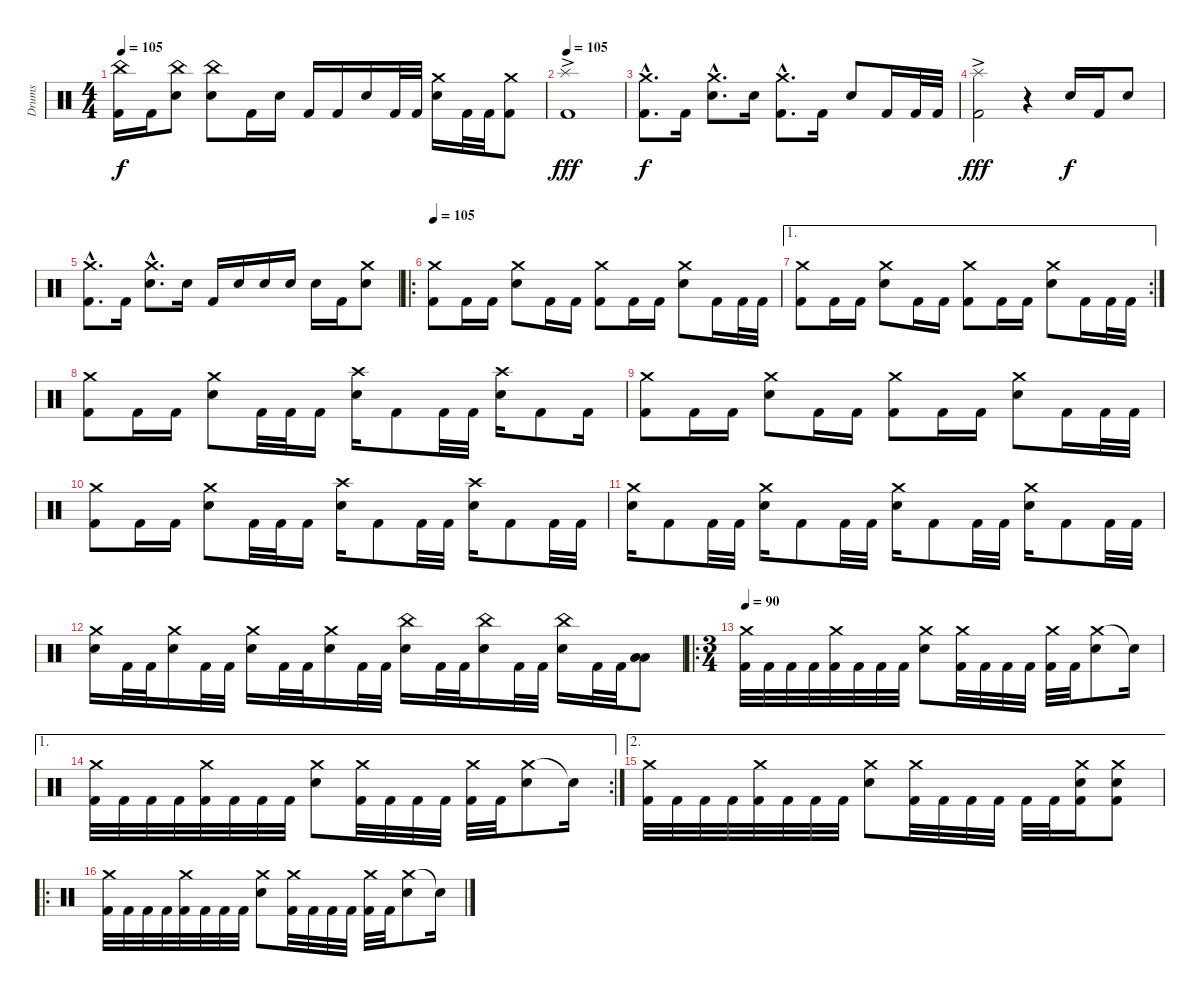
\track ("Drums" "Drums") {instrument percussion}
\staff {score}
\articulation defaults
\ts (4 4)
\tempo 105
\clef neutral
\ks c
("China (hit)" "Kick (hit) 2").16{dy f} "Kick (hit) 2".16 ("China (hit)" "Electric Snare (hit)").8 ("China (hit)" "Electric Snare (hit)").8 "Kick (hit) 2".16 "Electric Snare (hit)".16 "Kick (hit) 2".16 "Kick (hit) 2".16 "Electric Snare (hit)".16 "Kick (hit) 2".32 "Kick (hit) 2".32 ("Crash medium (hit)" "Electric Snare (hit)").16 "Kick (hit) 2".32 "Kick (hit) 2".32 ("Crash medium (hit)" "Kick (hit) 2").8 |
\tempo 105
("Splash (hit)"{ac} "Kick (hit) 2"{ac}).1{dy fff} |
("Crash medium (hit)"{hac} "Kick (hit) 2"{hac}).8{d dy f} "Kick (hit) 2".16 ("Crash medium (hit)"{hac} "Electric Snare (hit)"{hac}).8{d} "Electric Snare (hit)".16 ("Crash medium (hit)"{hac} "Kick (hit) 2"{hac}).8{d} "Kick (hit) 2".16 "Electric Snare (hit)".8 "Kick (hit) 2".16 "Kick (hit) 2".32 "Kick (hit) 2".32 |
("Splash (hit)"{ac} "Kick (hit) 2"{ac}).2{dy fff} r.4 "Electric Snare (hit)".16{dy f} "Kick (hit) 2".16 "Electric Snare (hit)".8 |
("Crash medium (hit)"{hac} "Kick (hit) 2"{hac}).8{d} "Kick (hit) 2".16 ("Crash medium (hit)"{hac} "Electric Snare (hit)"{hac}).8{d} "Electric Snare (hit)".16 "Kick (hit) 2".16 "Electric Snare (hit)".16 "Electric Snare (hit)".16 "Electric Snare (hit)".16 "Electric Snare (hit)".16 "Kick (hit) 2".16 ("Crash medium (hit)" "Electric Snare (hit)").8 |
\ro
\tempo 105
("Crash medium (hit)" "Kick (hit) 2").8 "Kick (hit) 2".16 "Kick (hit) 2".16 ("Crash medium (hit)" "Electric Snare (hit)").8 "Kick (hit) 2".16 "Kick (hit) 2".16 ("Crash medium (hit)" "Kick (hit) 2").8 "Kick (hit) 2".16 "Kick (hit) 2".16 ("Crash medium (hit)" "Electric Snare (hit)").8 "Kick (hit) 2".16 "Kick (hit) 2".32 "Kick (hit) 2".32 |
\ae 1
\rc 2
("Crash medium (hit)" "Kick (hit) 2").8 "Kick (hit) 2".16 "Kick (hit) 2".16 ("Crash medium (hit)" "Electric Snare (hit)").8 "Kick (hit) 2".16 "Kick (hit) 2".16 ("Crash medium (hit)" "Kick (hit) 2").8 "Kick (hit) 2".16 "Kick (hit) 2".16 ("Crash medium (hit)" "Electric Snare (hit)").8 "Kick (hit) 2".16 "Kick (hit) 2".32 "Kick (hit) 2".32 |
("Crash medium (hit)" "Kick (hit) 2").8 "Kick (hit) 2".16 "Kick (hit) 2".16 ("Crash medium (hit)" "Electric Snare (hit)").8 "Kick (hit) 2".32 "Kick (hit) 2".32 "Kick (hit) 2".16 ("Crash high (hit)" "Electric Snare (hit)").16 "Kick (hit) 2".8 "Kick (hit) 2".32 "Kick (hit) 2".32 ("Crash high (hit)" "Electric Snare (hit)").16 "Kick (hit) 2".8 "Kick (hit) 2".16 |
("Crash medium (hit)" "Kick (hit) 2").8 "Kick (hit) 2".16 "Kick (hit) 2".16 ("Crash medium (hit)" "Electric Snare (hit)").8 "Kick (hit) 2".16 "Kick (hit) 2".16 ("Crash medium (hit)" "Kick (hit) 2").8 "Kick (hit) 2".16 "Kick (hit) 2".16 ("Crash medium (hit)" "Electric Snare (hit)").8 "Kick (hit) 2".16 "Kick (hit) 2".32 "Kick (hit) 2".32 |
("Crash medium (hit)" "Kick (hit) 2").8 "Kick (hit) 2".16 "Kick (hit) 2".16 ("Crash medium (hit)" "Electric Snare (hit)").8 "Kick (hit) 2".32 "Kick (hit) 2".32 "Kick (hit) 2".16 ("Crash high (hit)" "Electric Snare (hit)").16 "Kick (hit) 2".8 "Kick (hit) 2".32 "Kick (hit) 2".32 ("Crash high (hit)" "Electric Snare (hit)").16 "Kick (hit) 2".8 "Kick (hit) 2".32 "Kick (hit) 2".32 |
("Crash medium (hit)" "Electric Snare (hit)").16 "Kick (hit) 2".8 "Kick (hit) 2".32 "Kick (hit) 2".32 ("Crash medium (hit)" "Electric Snare (hit)").16 "Kick (hit) 2".8 "Kick (hit) 2".32 "Kick (hit) 2".32 ("Crash medium (hit)" "Electric Snare (hit)").16 "Kick (hit) 2".8 "Kick (hit) 2".32 "Kick (hit) 2".32 ("Crash medium (hit)" "Electric Snare (hit)").16 "Kick (hit) 2".8 "Kick (hit) 2".32 "Kick (hit) 2".32 |
("Crash medium (hit)" "Electric Snare (hit)").16 "Kick (hit) 2".32 "Kick (hit) 2".32 ("Crash medium (hit)" "Electric Snare (hit)").16 "Kick (hit) 2".32 "Kick (hit) 2".32 ("Crash medium (hit)" "Electric Snare (hit)").16 "Kick (hit) 2".32 "Kick (hit) 2".32 ("Crash medium (hit)" "Electric Snare (hit)").16 "Kick (hit) 2".32 "Kick (hit) 2".32 ("China (hit)" "Electric Snare (hit)").16 "Kick (hit) 2".32 "Kick (hit) 2".32 ("China (hit)" "Electric Snare (hit)").16 "Kick (hit) 2".32 "Kick (hit) 2".32 ("China (hit)" "Electric Snare (hit)").16 "Kick (hit) 2".32 "Kick (hit) 2".32 ("Low Tom (hit)" "Low Tom (hit)").8 |
\ro
\ts (3 4)
\tempo 90
("Crash medium (hit)" "Kick (hit) 2").32 "Kick (hit) 2".32 "Kick (hit) 2".32 "Kick (hit) 2".32 ("Crash medium (hit)" "Kick (hit) 2").32 "Kick (hit) 2".32 "Kick (hit) 2".32 "Kick (hit) 2".32 ("Crash medium (hit)" "Electric Snare (hit)").8 ("Crash medium (hit)" "Kick (hit) 2").32 "Kick (hit) 2".32 "Kick (hit) 2".32 "Kick (hit) 2".32 ("Crash medium (hit)" "Kick (hit) 2").32 "Kick (hit) 2".32 ("Crash medium (hit)" "Electric Snare (hit)").8 "Snare (hit)"{t}.16 |
\ae 1
\rc 2
("Crash medium (hit)" "Kick (hit) 2").32 "Kick (hit) 2".32 "Kick (hit) 2".32 "Kick (hit) 2".32 ("Crash medium (hit)" "Kick (hit) 2").32 "Kick (hit) 2".32 "Kick (hit) 2".32 "Kick (hit) 2".32 ("Crash medium (hit)" "Electric Snare (hit)").8 ("Crash medium (hit)" "Kick (hit) 2").32 "Kick (hit) 2".32 "Kick (hit) 2".32 "Kick (hit) 2".32 ("Crash medium (hit)" "Kick (hit) 2").32 "Kick (hit) 2".32 ("Crash medium (hit)" "Electric Snare (hit)").8 "Snare (hit)"{t}.16 |
\ae 2
("Crash medium (hit)" "Kick (hit) 2").32 "Kick (hit) 2".32 "Kick (hit) 2".32 "Kick (hit) 2".32 ("Crash medium (hit)" "Kick (hit) 2").32 "Kick (hit) 2".32 "Kick (hit) 2".32 "Kick (hit) 2".32 ("Crash medium (hit)" "Electric Snare (hit)").8 ("Crash medium (hit)" "Kick (hit) 2").32 "Kick (hit) 2".32 "Kick (hit) 2".32 "Kick (hit) 2".32 "Kick (hit) 2".32 "Kick (hit) 2".32 ("Crash medium (hit)" "Kick (hit) 2" "Electric Snare (hit)").16 ("Crash medium (hit)" "Kick (hit) 2" "Electric Snare (hit)").8 |
\ro
("Crash medium (hit)" "Kick (hit) 2").32 "Kick (hit) 2".32 "Kick (hit) 2".32 "Kick (hit) 2".32 ("Crash medium (hit)" "Kick (hit) 2").32 "Kick (hit) 2".32 "Kick (hit) 2".32 "Kick (hit) 2".32 ("Crash medium (hit)" "Electric Snare (hit)").8 ("Crash medium (hit)" "Kick (hit) 2").32 "Kick (hit) 2".32 "Kick (hit) 2".32 "Kick (hit) 2".32 ("Crash medium (hit)" "Kick (hit) 2").32 "Kick (hit) 2".32 ("Crash medium (hit)" "Electric Snare (hit)").8 "Snare (hit)"{t}.16
